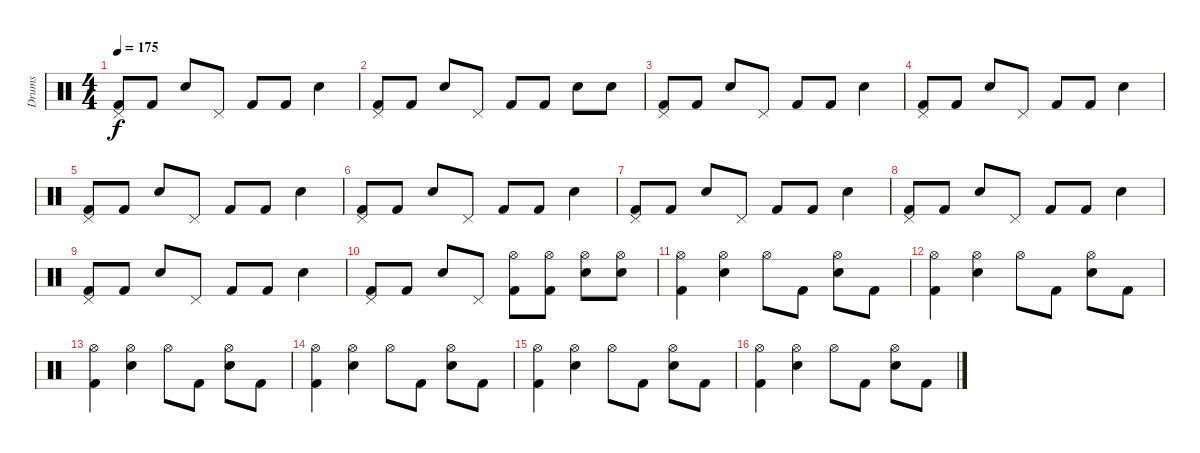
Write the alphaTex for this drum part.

\track ("Drums" "Drums") {instrument percussion}
\staff {score}
\articulation defaults
\ts (4 4)
\tempo 175
\clef neutral
\ks c
("Pedal Hi-Hat (hit)" "Kick (hit) 2").8{dy f} "Kick (hit) 2".8 "Snare (hit) 2".8 "Pedal Hi-Hat (hit)".8 "Kick (hit) 2".8 "Kick (hit) 2".8 "Snare (hit) 2".4 |
("Pedal Hi-Hat (hit)" "Kick (hit) 2").8 "Kick (hit) 2".8 "Snare (hit) 2".8 "Pedal Hi-Hat (hit)".8 "Kick (hit) 2".8 "Kick (hit) 2".8 "Snare (hit) 2".8 "Snare (hit) 2".8 |
("Pedal Hi-Hat (hit)" "Kick (hit) 2").8 "Kick (hit) 2".8 "Snare (hit) 2".8 "Pedal Hi-Hat (hit)".8 "Kick (hit) 2".8 "Kick (hit) 2".8 "Snare (hit) 2".4 |
("Pedal Hi-Hat (hit)" "Kick (hit) 2").8 "Kick (hit) 2".8 "Snare (hit) 2".8 "Pedal Hi-Hat (hit)".8 "Kick (hit) 2".8 "Kick (hit) 2".8 "Snare (hit) 2".4 |
("Pedal Hi-Hat (hit)" "Kick (hit) 2").8 "Kick (hit) 2".8 "Snare (hit) 2".8 "Pedal Hi-Hat (hit)".8 "Kick (hit) 2".8 "Kick (hit) 2".8 "Snare (hit) 2".4 |
("Pedal Hi-Hat (hit)" "Kick (hit) 2").8 "Kick (hit) 2".8 "Snare (hit) 2".8 "Pedal Hi-Hat (hit)".8 "Kick (hit) 2".8 "Kick (hit) 2".8 "Snare (hit) 2".4 |
("Pedal Hi-Hat (hit)" "Kick (hit) 2").8 "Kick (hit) 2".8 "Snare (hit) 2".8 "Pedal Hi-Hat (hit)".8 "Kick (hit) 2".8 "Kick (hit) 2".8 "Snare (hit) 2".4 |
("Pedal Hi-Hat (hit)" "Kick (hit) 2").8 "Kick (hit) 2".8 "Snare (hit) 2".8 "Pedal Hi-Hat (hit)".8 "Kick (hit) 2".8 "Kick (hit) 2".8 "Snare (hit) 2".4 |
("Pedal Hi-Hat (hit)" "Kick (hit) 2").8 "Kick (hit) 2".8 "Snare (hit) 2".8 "Pedal Hi-Hat (hit)".8 "Kick (hit) 2".8 "Kick (hit) 2".8 "Snare (hit) 2".4 |
("Pedal Hi-Hat (hit)" "Kick (hit) 2").8 "Kick (hit) 2".8 "Snare (hit) 2".8 "Pedal Hi-Hat (hit)".8 ("Hi-Hat (open)" "Kick (hit) 2").8 ("Hi-Hat (open)" "Kick (hit) 2").8 ("Hi-Hat (open)" "Snare (hit) 2").8 ("Hi-Hat (open)" "Snare (hit) 2").8 |
("Hi-Hat (open)" "Kick (hit) 2").4 ("Hi-Hat (open)" "Snare (hit) 2").4 "Hi-Hat (open)".8 "Kick (hit) 2".8 ("Hi-Hat (open)" "Snare (hit) 2").8 "Kick (hit) 2".8 |
("Hi-Hat (open)" "Kick (hit) 2").4 ("Hi-Hat (open)" "Snare (hit) 2").4 "Hi-Hat (open)".8 "Kick (hit) 2".8 ("Hi-Hat (open)" "Snare (hit) 2").8 "Kick (hit) 2".8 |
("Hi-Hat (open)" "Kick (hit) 2").4 ("Hi-Hat (open)" "Snare (hit) 2").4 "Hi-Hat (open)".8 "Kick (hit) 2".8 ("Hi-Hat (open)" "Snare (hit) 2").8 "Kick (hit) 2".8 |
("Hi-Hat (open)" "Kick (hit) 2").4 ("Hi-Hat (open)" "Snare (hit) 2").4 "Hi-Hat (open)".8 "Kick (hit) 2".8 ("Hi-Hat (open)" "Snare (hit) 2").8 "Kick (hit) 2".8 |
("Hi-Hat (open)" "Kick (hit) 2").4 ("Hi-Hat (open)" "Snare (hit) 2").4 "Hi-Hat (open)".8 "Kick (hit) 2".8 ("Hi-Hat (open)" "Snare (hit) 2").8 "Kick (hit) 2".8 |
("Hi-Hat (open)" "Kick (hit) 2").4 ("Hi-Hat (open)" "Snare (hit) 2").4 "Hi-Hat (open)".8 "Kick (hit) 2".8 ("Hi-Hat (open)" "Snare (hit) 2").8 "Kick (hit) 2".8
